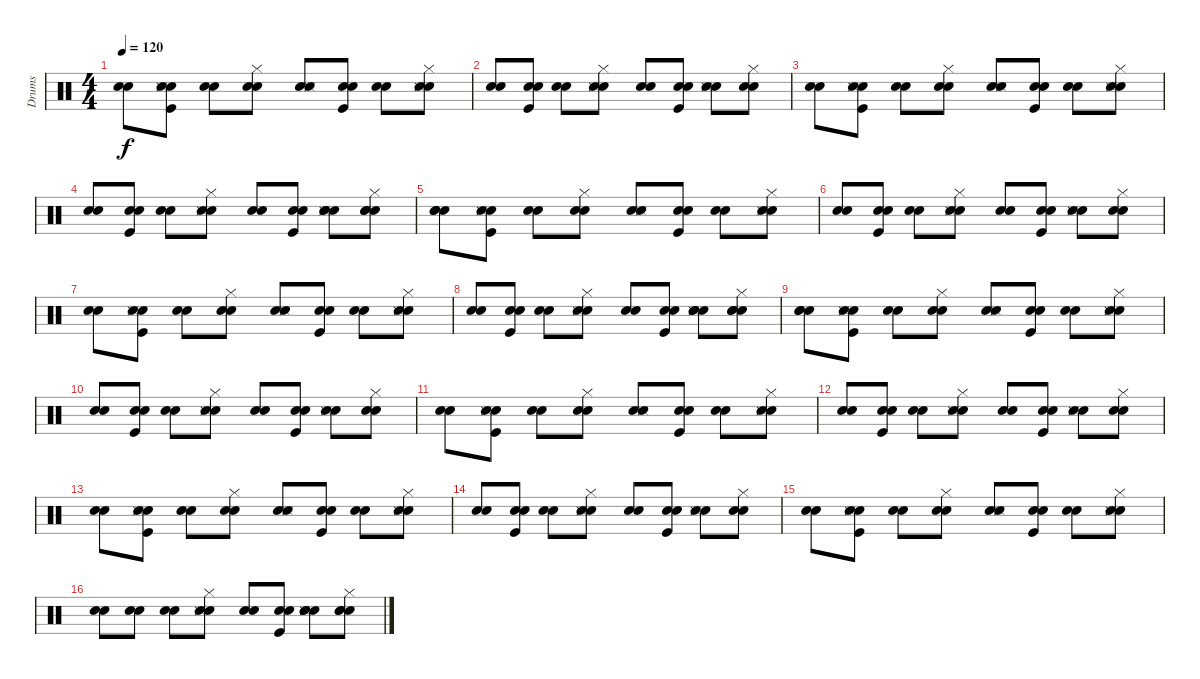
\track ("Drums" "Drums") {instrument percussion}
\staff {score}
\articulation defaults
\ts (4 4)
\tempo 120
\clef neutral
\ks c
("Snare (hit)" "Snare (hit) 2").8{dy f} ("Snare (hit)" "Kick (hit)" "Snare (hit) 2" "Snare (side stick) 3").8 ("Snare (hit)" "Snare (hit) 2").8 ("Snare (hit)" "Snare (hit) 2" "Hi-Hat (closed)").8 ("Snare (hit)" "Snare (hit) 2" "Snare (side stick) 3").8 ("Snare (hit)" "Kick (hit)" "Snare (hit) 2").8 ("Snare (hit)" "Snare (hit) 2").8 ("Snare (hit)" "Snare (hit) 2" "Hi-Hat (closed)" "Snare (side stick) 3").8 |
("Snare (hit)" "Snare (hit) 2").8 ("Snare (hit)" "Kick (hit)" "Snare (hit) 2").8 ("Snare (hit)" "Snare (hit) 2").8 ("Snare (hit)" "Snare (hit) 2" "Hi-Hat (closed)" "Snare (side stick) 3").8 ("Snare (hit)" "Hand Clap (hit)").8 ("Snare (hit)" "Kick (hit)" "Snare (hit) 2").8 ("Snare (hit)" "Snare (hit) 2" "Snare (side stick) 3").8 ("Snare (hit)" "Snare (hit) 2" "Hi-Hat (closed)").8 |
("Snare (hit)" "Snare (hit) 2").8 ("Snare (hit)" "Kick (hit)" "Snare (hit) 2" "Snare (side stick) 3").8 ("Snare (hit)" "Snare (hit) 2").8 ("Snare (hit)" "Snare (hit) 2" "Hi-Hat (closed)").8 ("Snare (hit)" "Snare (hit) 2" "Snare (side stick) 3").8 ("Snare (hit)" "Kick (hit)" "Snare (hit) 2").8 ("Snare (hit)" "Snare (hit) 2").8 ("Snare (hit)" "Snare (hit) 2" "Hi-Hat (closed)" "Snare (side stick) 3").8 |
("Snare (hit)" "Snare (hit) 2").8 ("Snare (hit)" "Kick (hit)" "Snare (hit) 2").8 ("Snare (hit)" "Snare (hit) 2").8 ("Snare (hit)" "Snare (hit) 2" "Hi-Hat (closed)" "Snare (side stick) 3").8 ("Snare (hit)" "Hand Clap (hit)").8 ("Snare (hit)" "Kick (hit)" "Snare (hit) 2").8 ("Snare (hit)" "Snare (hit) 2" "Snare (side stick) 3" "Hand Clap (hit)").8 ("Snare (hit)" "Snare (hit) 2" "Hi-Hat (closed)" "Hand Clap (hit)").8 |
("Snare (hit)" "Snare (hit) 2" "Hand Clap (hit)").8 ("Snare (hit)" "Kick (hit)" "Snare (hit) 2" "Snare (side stick) 3").8 ("Snare (hit)" "Snare (hit) 2").8 ("Snare (hit)" "Snare (hit) 2" "Hi-Hat (closed)").8 ("Snare (hit)" "Snare (hit) 2" "Snare (side stick) 3").8 ("Snare (hit)" "Kick (hit)" "Snare (hit) 2").8 ("Snare (hit)" "Snare (hit) 2").8 ("Snare (hit)" "Snare (hit) 2" "Hi-Hat (closed)" "Snare (side stick) 3").8 |
("Snare (hit)" "Snare (hit) 2").8 ("Snare (hit)" "Kick (hit)" "Snare (hit) 2").8 ("Snare (hit)" "Snare (hit) 2").8 ("Snare (hit)" "Snare (hit) 2" "Hi-Hat (closed)" "Snare (side stick) 3").8 ("Snare (hit)" "Hand Clap (hit)").8 ("Snare (hit)" "Kick (hit)" "Snare (hit) 2").8 ("Snare (hit)" "Snare (hit) 2" "Snare (side stick) 3").8 ("Snare (hit)" "Snare (hit) 2" "Hi-Hat (closed)").8 |
("Snare (hit)" "Snare (hit) 2").8 ("Snare (hit)" "Kick (hit)" "Snare (hit) 2" "Snare (side stick) 3").8 ("Snare (hit)" "Snare (hit) 2").8 ("Snare (hit)" "Snare (hit) 2" "Hi-Hat (closed)").8 ("Snare (hit)" "Snare (hit) 2" "Snare (side stick) 3").8 ("Snare (hit)" "Kick (hit)" "Snare (hit) 2").8 ("Snare (hit)" "Snare (hit) 2").8 ("Snare (hit)" "Snare (hit) 2" "Hi-Hat (closed)" "Snare (side stick) 3").8 |
("Snare (hit)" "Snare (hit) 2").8 ("Snare (hit)" "Kick (hit)" "Snare (hit) 2").8 ("Snare (hit)" "Snare (hit) 2").8 ("Snare (hit)" "Snare (hit) 2" "Hi-Hat (closed)" "Snare (side stick) 3").8 ("Snare (hit)" "Hand Clap (hit)").8 ("Snare (hit)" "Kick (hit)" "Snare (hit) 2").8 ("Snare (hit)" "Snare (hit) 2" "Snare (side stick) 3" "Hand Clap (hit)").8 ("Snare (hit)" "Snare (hit) 2" "Hi-Hat (closed)" "Hand Clap (hit)").8 |
("Snare (hit)" "Snare (hit) 2" "Hand Clap (hit)").8 ("Snare (hit)" "Kick (hit)" "Snare (hit) 2" "Snare (side stick) 3").8 ("Snare (hit)" "Snare (hit) 2").8 ("Snare (hit)" "Snare (hit) 2" "Hi-Hat (closed)").8 ("Snare (hit)" "Snare (hit) 2" "Snare (side stick) 3").8 ("Snare (hit)" "Kick (hit)" "Snare (hit) 2").8 ("Snare (hit)" "Snare (hit) 2").8 ("Snare (hit)" "Snare (hit) 2" "Hi-Hat (closed)" "Snare (side stick) 3").8 |
("Snare (hit)" "Snare (hit) 2").8 ("Snare (hit)" "Kick (hit)" "Snare (hit) 2").8 ("Snare (hit)" "Snare (hit) 2").8 ("Snare (hit)" "Snare (hit) 2" "Hi-Hat (closed)" "Snare (side stick) 3").8 ("Snare (hit)" "Hand Clap (hit)").8 ("Snare (hit)" "Kick (hit)" "Snare (hit) 2").8 ("Snare (hit)" "Snare (hit) 2" "Snare (side stick) 3").8 ("Snare (hit)" "Snare (hit) 2" "Hi-Hat (closed)").8 |
("Snare (hit)" "Snare (hit) 2").8 ("Snare (hit)" "Kick (hit)" "Snare (hit) 2" "Snare (side stick) 3").8 ("Snare (hit)" "Snare (hit) 2").8 ("Snare (hit)" "Snare (hit) 2" "Hi-Hat (closed)").8 ("Snare (hit)" "Snare (hit) 2" "Snare (side stick) 3").8 ("Snare (hit)" "Kick (hit)" "Snare (hit) 2").8 ("Snare (hit)" "Snare (hit) 2").8 ("Snare (hit)" "Snare (hit) 2" "Hi-Hat (closed)" "Snare (side stick) 3").8 |
("Snare (hit)" "Snare (hit) 2").8 ("Snare (hit)" "Kick (hit)" "Snare (hit) 2").8 ("Snare (hit)" "Snare (hit) 2").8 ("Snare (hit)" "Snare (hit) 2" "Hi-Hat (closed)" "Snare (side stick) 3").8 ("Snare (hit)" "Hand Clap (hit)").8 ("Snare (hit)" "Kick (hit)" "Snare (hit) 2").8 ("Snare (hit)" "Snare (hit) 2" "Snare (side stick) 3").8 ("Snare (hit)" "Snare (hit) 2" "Hi-Hat (closed)").8 |
("Snare (hit)" "Snare (hit) 2").8 ("Snare (hit)" "Kick (hit)" "Snare (hit) 2" "Snare (side stick) 3").8 ("Snare (hit)" "Snare (hit) 2").8 ("Snare (hit)" "Snare (hit) 2" "Hi-Hat (closed)").8 ("Snare (hit)" "Snare (hit) 2" "Snare (side stick) 3").8 ("Snare (hit)" "Kick (hit)" "Snare (hit) 2").8 ("Snare (hit)" "Snare (hit) 2").8 ("Snare (hit)" "Snare (hit) 2" "Hi-Hat (closed)" "Snare (side stick) 3").8 |
("Snare (hit)" "Snare (hit) 2").8 ("Snare (hit)" "Kick (hit)" "Snare (hit) 2").8 ("Snare (hit)" "Snare (hit) 2").8 ("Snare (hit)" "Snare (hit) 2" "Hi-Hat (closed)" "Snare (side stick) 3").8 ("Snare (hit)" "Hand Clap (hit)").8 ("Snare (hit)" "Kick (hit)" "Snare (hit) 2").8 ("Snare (hit)" "Snare (hit) 2" "Snare (side stick) 3").8 ("Snare (hit)" "Snare (hit) 2" "Hi-Hat (closed)").8 |
("Snare (hit)" "Snare (hit) 2").8 ("Snare (hit)" "Kick (hit)" "Snare (hit) 2" "Snare (side stick) 3").8 ("Snare (hit)" "Snare (hit) 2").8 ("Snare (hit)" "Snare (hit) 2" "Hi-Hat (closed)").8 ("Snare (hit)" "Snare (hit) 2" "Snare (side stick) 3").8 ("Snare (hit)" "Kick (hit)" "Snare (hit) 2").8 ("Snare (hit)" "Snare (hit) 2").8 ("Snare (hit)" "Snare (hit) 2" "Hi-Hat (closed)" "Snare (side stick) 3").8 |
("Snare (hit)" "Snare (hit) 2").8 ("Snare (hit)" "Snare (hit) 2").8 ("Snare (hit)" "Snare (hit) 2").8 ("Snare (hit)" "Snare (hit) 2" "Hi-Hat (closed)" "Snare (side stick) 3").8 ("Snare (hit)" "Hand Clap (hit)").8 ("Snare (hit)" "Kick (hit)" "Snare (hit) 2").8 ("Snare (hit)" "Snare (hit) 2" "Snare (side stick) 3" "Hand Clap (hit)").8 ("Snare (hit)" "Snare (hit) 2" "Hi-Hat (closed)" "Hand Clap (hit)").8
